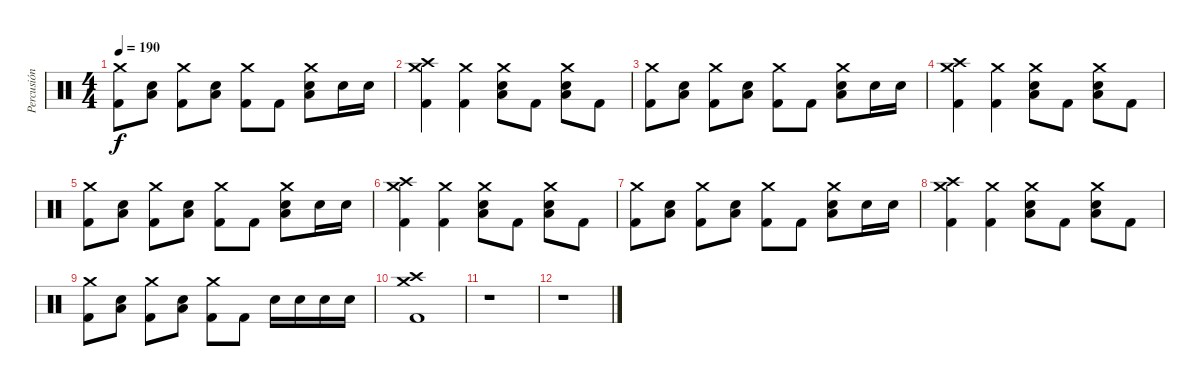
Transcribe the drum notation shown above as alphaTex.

\track ("Percusión" "Percusión") {instrument percussion}
\staff {score}
\articulation defaults
\ts (4 4)
\tempo 190
\clef neutral
\ks c
("Crash medium (hit)" "Kick (hit) 2").8{dy f} ("Low Tom (hit)" "Snare (hit) 2").8 ("Crash medium (hit)" "Kick (hit) 2").8 ("Low Tom (hit)" "Snare (hit) 2").8 ("Crash medium (hit)" "Kick (hit) 2").8 "Kick (hit) 2".8 ("Crash medium (hit)" "Low Tom (hit)" "Snare (hit) 2").8 "Snare (hit) 2".16 "Snare (hit) 2".16 |
("Crash medium (hit)" "Crash high (hit)" "Kick (hit) 2").4 ("Crash medium (hit)" "Kick (hit) 2").4 ("Crash medium (hit)" "Low Tom (hit)" "Snare (hit) 2").8 "Kick (hit) 2".8 ("Crash medium (hit)" "Low Tom (hit)" "Snare (hit) 2").8 "Kick (hit) 2".8 |
("Crash medium (hit)" "Kick (hit) 2").8 ("Low Tom (hit)" "Snare (hit) 2").8 ("Crash medium (hit)" "Kick (hit) 2").8 ("Low Tom (hit)" "Snare (hit) 2").8 ("Crash medium (hit)" "Kick (hit) 2").8 "Kick (hit) 2".8 ("Crash medium (hit)" "Low Tom (hit)" "Snare (hit) 2").8 "Snare (hit) 2".16 "Snare (hit) 2".16 |
("Crash medium (hit)" "Crash high (hit)" "Kick (hit) 2").4 ("Crash medium (hit)" "Kick (hit) 2").4 ("Crash medium (hit)" "Low Tom (hit)" "Snare (hit) 2").8 "Kick (hit) 2".8 ("Crash medium (hit)" "Low Tom (hit)" "Snare (hit) 2").8 "Kick (hit) 2".8 |
("Crash medium (hit)" "Kick (hit) 2").8 ("Low Tom (hit)" "Snare (hit) 2").8 ("Crash medium (hit)" "Kick (hit) 2").8 ("Low Tom (hit)" "Snare (hit) 2").8 ("Crash medium (hit)" "Kick (hit) 2").8 "Kick (hit) 2".8 ("Crash medium (hit)" "Low Tom (hit)" "Snare (hit) 2").8 "Snare (hit) 2".16 "Snare (hit) 2".16 |
("Crash medium (hit)" "Crash high (hit)" "Kick (hit) 2").4 ("Crash medium (hit)" "Kick (hit) 2").4 ("Crash medium (hit)" "Low Tom (hit)" "Snare (hit) 2").8 "Kick (hit) 2".8 ("Crash medium (hit)" "Low Tom (hit)" "Snare (hit) 2").8 "Kick (hit) 2".8 |
("Crash medium (hit)" "Kick (hit) 2").8 ("Low Tom (hit)" "Snare (hit) 2").8 ("Crash medium (hit)" "Kick (hit) 2").8 ("Low Tom (hit)" "Snare (hit) 2").8 ("Crash medium (hit)" "Kick (hit) 2").8 "Kick (hit) 2".8 ("Crash medium (hit)" "Low Tom (hit)" "Snare (hit) 2").8 "Snare (hit) 2".16 "Snare (hit) 2".16 |
("Crash medium (hit)" "Crash high (hit)" "Kick (hit) 2").4 ("Crash medium (hit)" "Kick (hit) 2").4 ("Crash medium (hit)" "Low Tom (hit)" "Snare (hit) 2").8 "Kick (hit) 2".8 ("Crash medium (hit)" "Low Tom (hit)" "Snare (hit) 2").8 "Kick (hit) 2".8 |
("Crash medium (hit)" "Kick (hit) 2").8 ("Low Tom (hit)" "Snare (hit) 2").8 ("Crash medium (hit)" "Kick (hit) 2").8 ("Low Tom (hit)" "Snare (hit) 2").8 ("Crash medium (hit)" "Kick (hit) 2").8 "Kick (hit) 2".8 "Snare (hit) 2".16 "Snare (hit) 2".16 "Snare (hit) 2".16 "Snare (hit) 2".16 |
("Crash medium (hit)" "Crash high (hit)" "Kick (hit) 2").1 |
r.1 |
r.1
